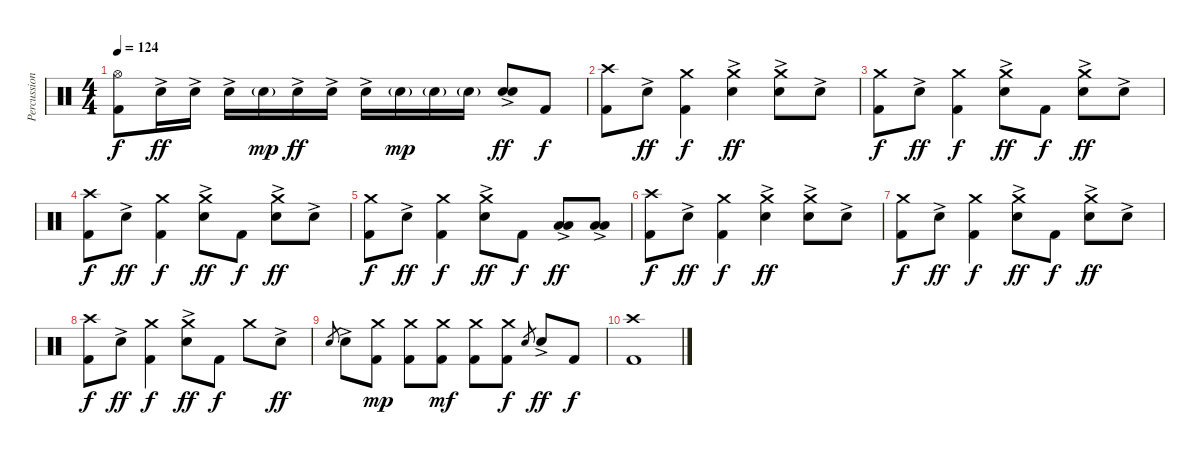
\track ("Percussion" "Percussion") {instrument percussion}
\staff {score}
\articulation defaults
\ts (4 4)
\tempo 124
\clef neutral
\ks c
("Hi-Hat (open)" "Kick (hit) 2").8{dy f} "Electric Snare (hit)"{ac}.16{dy ff} "Electric Snare (hit)"{ac}.16 "Electric Snare (hit)"{ac}.16 "Electric Snare (hit)"{g}.16{dy mp} "Electric Snare (hit)"{ac}.16{dy ff} "Electric Snare (hit)"{ac}.16 "Electric Snare (hit)"{ac}.16 "Electric Snare (hit)"{g}.16{dy mp} "Electric Snare (hit)"{g}.16 "Electric Snare (hit)"{g}.16 ("Electric Snare (hit)"{ac} "Electric Snare (hit)"{ac}).8{bu 120 dy ff} "Kick (hit) 2".8{dy f} |
("Crash high (hit)" "Kick (hit) 2").8 "Electric Snare (hit)"{ac}.8{dy ff} ("Crash medium (hit)" "Kick (hit) 2").4{dy f} ("Crash medium (hit)" "Electric Snare (hit)"{ac}).4{dy ff} ("Crash medium (hit)" "Electric Snare (hit)"{ac}).8 "Electric Snare (hit)"{ac}.8 |
("Crash medium (hit)" "Kick (hit) 2").8{dy f} "Electric Snare (hit)"{ac}.8{dy ff} ("Crash medium (hit)" "Kick (hit) 2").4{dy f} ("Crash medium (hit)" "Electric Snare (hit)"{ac}).8{dy ff} "Kick (hit) 2".8{dy f} ("Crash medium (hit)" "Electric Snare (hit)"{ac}).8{dy ff} "Electric Snare (hit)"{ac}.8 |
("Crash high (hit)" "Kick (hit) 2").8{dy f} "Electric Snare (hit)"{ac}.8{dy ff} ("Crash medium (hit)" "Kick (hit) 2").4{dy f} ("Crash medium (hit)" "Electric Snare (hit)"{ac}).8{dy ff} "Kick (hit) 2".8{dy f} ("Crash medium (hit)" "Electric Snare (hit)"{ac}).8{dy ff} "Electric Snare (hit)"{ac}.8 |
("Crash medium (hit)" "Kick (hit) 2").8{dy f} "Electric Snare (hit)"{ac}.8{dy ff} ("Crash medium (hit)" "Kick (hit) 2").4{dy f} ("Crash medium (hit)" "Electric Snare (hit)"{ac}).8{dy ff} "Kick (hit) 2".8{dy f} ("Low Tom (hit)"{ac} "Low Tom (hit)"{ac}).8{dy ff} ("Low Tom (hit)"{ac} "Low Tom (hit)"{ac}).8 |
("Crash high (hit)" "Kick (hit) 2").8{dy f} "Electric Snare (hit)"{ac}.8{dy ff} ("Crash medium (hit)" "Kick (hit) 2").4{dy f} ("Crash medium (hit)" "Electric Snare (hit)"{ac}).4{dy ff} ("Crash medium (hit)" "Electric Snare (hit)"{ac}).8 "Electric Snare (hit)"{ac}.8 |
("Crash medium (hit)" "Kick (hit) 2").8{dy f} "Electric Snare (hit)"{ac}.8{dy ff} ("Crash medium (hit)" "Kick (hit) 2").4{dy f} ("Crash medium (hit)" "Electric Snare (hit)"{ac}).8{dy ff} "Kick (hit) 2".8{dy f} ("Crash medium (hit)" "Electric Snare (hit)"{ac}).8{dy ff} "Electric Snare (hit)"{ac}.8 |
("Crash high (hit)" "Kick (hit) 2").8{dy f} "Electric Snare (hit)"{ac}.8{dy ff} ("Crash medium (hit)" "Kick (hit) 2").4{dy f} ("Crash medium (hit)" "Electric Snare (hit)"{ac}).8{dy ff} "Kick (hit) 2".8{dy f} "Crash medium (hit)".8 "Electric Snare (hit)"{ac}.8{dy ff} |
"Electric Snare (hit)".8{gr} "Electric Snare (hit)"{ac}.8 ("Crash medium (hit)" "Kick (hit) 2").8{dy mp} ("Crash medium (hit)" "Kick (hit) 2").8 ("Crash medium (hit)" "Kick (hit) 2").8{dy mf} ("Crash medium (hit)" "Kick (hit) 2").8 ("Crash medium (hit)" "Kick (hit) 2").8{dy f} "Electric Snare (hit)".8{gr} "Electric Snare (hit)"{ac}.8{dy ff} "Kick (hit) 2".8{dy f} |
("Crash high (hit)" "Kick (hit) 2").1
